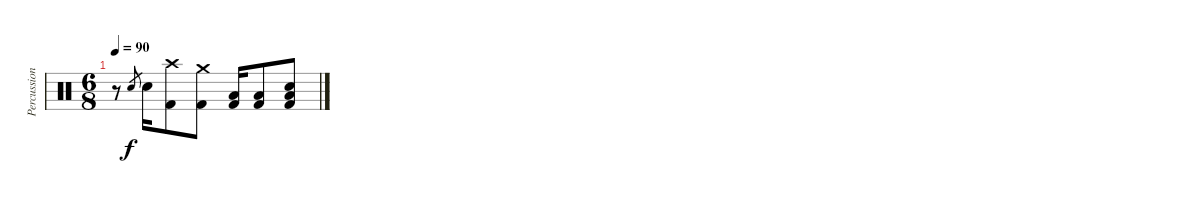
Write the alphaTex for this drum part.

\track ("Percussion" "Percussion") {instrument percussion}
\staff {score}
\articulation defaults
\ts (6 8)
\tempo 90
\clef neutral
\ks c
r.8{dy f} "Electric Snare (hit)".8{gr} "Electric Snare (hit)".16 ("Crash high (hit)" "Kick (hit) 2").8 ("Crash medium (hit)" "Kick (hit) 2").8 ("Low Floor Tom (hit)" "Kick (hit) 2").16 ("Low Floor Tom (hit)" "Kick (hit) 2").8 ("Low Floor Tom (hit)" "Electric Snare (hit)" "Kick (hit) 2").8
